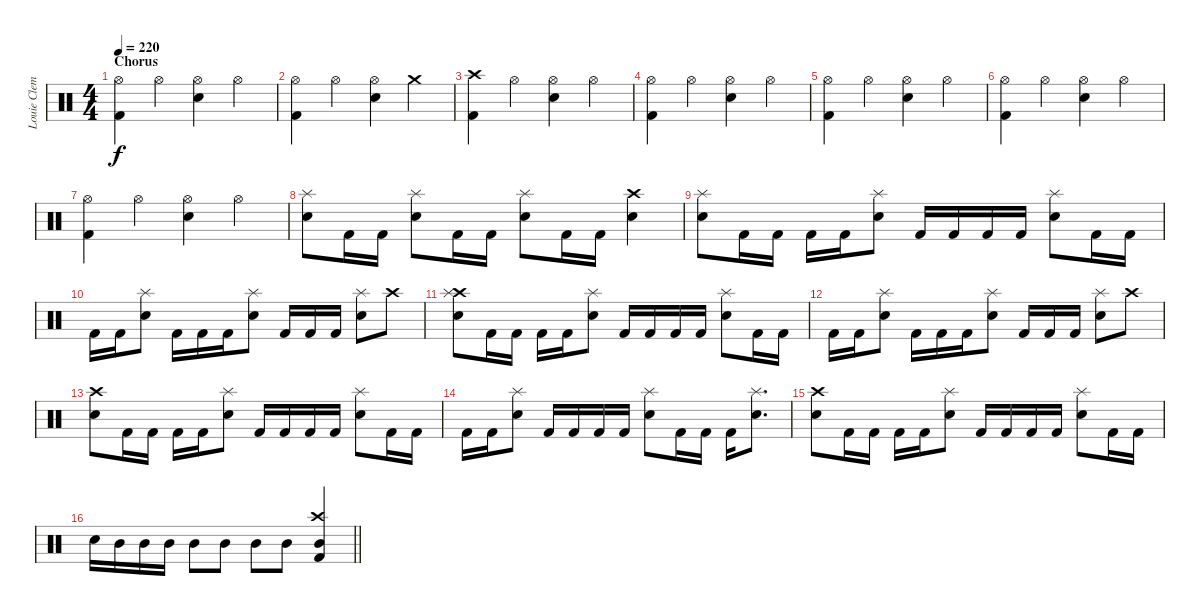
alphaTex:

\track ("Louie Clemente (Drums)" "Louie Clem") {instrument percussion}
\staff {score}
\articulation defaults
\ts (4 4)
\section ("" "Chorus")
\tempo 220
\clef neutral
\ks c
("Hi-Hat (open)" "Kick (hit) 2").4{dy f} "Hi-Hat (open)".4 ("Hi-Hat (open)" "Electric Snare (hit)").4 "Hi-Hat (open)".4 |
("Hi-Hat (open)" "Kick (hit) 2").4 "Hi-Hat (open)".4 ("Hi-Hat (open)" "Electric Snare (hit)").4 "Crash medium (hit)".4 |
("Crash high (hit)" "Kick (hit) 2").4 "Hi-Hat (open)".4 ("Hi-Hat (open)" "Electric Snare (hit)").4 "Hi-Hat (open)".4 |
("Hi-Hat (open)" "Kick (hit) 2").4 "Hi-Hat (open)".4 ("Hi-Hat (open)" "Electric Snare (hit)").4 "Hi-Hat (open)".4 |
("Hi-Hat (open)" "Kick (hit) 2").4 "Hi-Hat (open)".4 ("Hi-Hat (open)" "Electric Snare (hit)").4 "Hi-Hat (open)".4 |
("Hi-Hat (open)" "Kick (hit) 2").4 "Hi-Hat (open)".4 ("Hi-Hat (open)" "Electric Snare (hit)").4 "Hi-Hat (open)".4 |
("Hi-Hat (open)" "Kick (hit) 2").4 "Hi-Hat (open)".4 ("Hi-Hat (open)" "Electric Snare (hit)").4 "Hi-Hat (open)".4 |
("Splash (hit)" "Electric Snare (hit)").8 "Kick (hit) 2".16 "Kick (hit) 2".16 ("Splash (hit)" "Electric Snare (hit)").8 "Kick (hit) 2".16 "Kick (hit) 2".16 ("Splash (hit)" "Electric Snare (hit)").8 "Kick (hit) 2".16 "Kick (hit) 2".16 ("Crash high (hit)" "Electric Snare (hit)").4 |
("Splash (hit)" "Electric Snare (hit)").8 "Kick (hit) 2".16 "Kick (hit) 2".16 "Kick (hit) 2".16 "Kick (hit) 2".16 ("Splash (hit)" "Electric Snare (hit)").8 "Kick (hit) 2".16 "Kick (hit) 2".16 "Kick (hit) 2".16 "Kick (hit) 2".16 ("Splash (hit)" "Electric Snare (hit)").8 "Kick (hit) 2".16 "Kick (hit) 2".16 |
"Kick (hit) 2".16 "Kick (hit) 2".16 ("Splash (hit)" "Electric Snare (hit)").8 "Kick (hit) 2".16 "Kick (hit) 2".16 "Kick (hit) 2".16 ("Splash (hit)" "Electric Snare (hit)").8 "Kick (hit) 2".16 "Kick (hit) 2".16 "Kick (hit) 2".16 ("Splash (hit)" "Electric Snare (hit)").8 "Crash high (hit)".8 |
("Crash high (hit)" "Splash (hit)" "Electric Snare (hit)").8 "Kick (hit) 2".16 "Kick (hit) 2".16 "Kick (hit) 2".16 "Kick (hit) 2".16 ("Splash (hit)" "Electric Snare (hit)").8 "Kick (hit) 2".16 "Kick (hit) 2".16 "Kick (hit) 2".16 "Kick (hit) 2".16 ("Splash (hit)" "Electric Snare (hit)").8 "Kick (hit) 2".16 "Kick (hit) 2".16 |
"Kick (hit) 2".16 "Kick (hit) 2".16 ("Splash (hit)" "Electric Snare (hit)").8 "Kick (hit) 2".16 "Kick (hit) 2".16 "Kick (hit) 2".16 ("Splash (hit)" "Electric Snare (hit)").8 "Kick (hit) 2".16 "Kick (hit) 2".16 "Kick (hit) 2".16 ("Splash (hit)" "Electric Snare (hit)").8 "Crash high (hit)".8 |
("Crash high (hit)" "Electric Snare (hit)").8 "Kick (hit) 2".16 "Kick (hit) 2".16 "Kick (hit) 2".16 "Kick (hit) 2".16 ("Splash (hit)" "Electric Snare (hit)").8 "Kick (hit) 2".16 "Kick (hit) 2".16 "Kick (hit) 2".16 "Kick (hit) 2".16 ("Splash (hit)" "Electric Snare (hit)").8 "Kick (hit) 2".16 "Kick (hit) 2".16 |
"Kick (hit) 2".16 "Kick (hit) 2".16 ("Splash (hit)" "Electric Snare (hit)").8 "Kick (hit) 2".16 "Kick (hit) 2".16 "Kick (hit) 2".16 "Kick (hit) 2".16 ("Splash (hit)" "Electric Snare (hit)").8 "Kick (hit) 2".16 "Kick (hit) 2".16 "Kick (hit) 2".16 ("Splash (hit)" "Electric Snare (hit)").8{d} |
("Crash high (hit)" "Electric Snare (hit)").8 "Kick (hit) 2".16 "Kick (hit) 2".16 "Kick (hit) 2".16 "Kick (hit) 2".16 ("Splash (hit)" "Electric Snare (hit)").8 "Kick (hit) 2".16 "Kick (hit) 2".16 "Kick (hit) 2".16 "Kick (hit) 2".16 ("Splash (hit)" "Electric Snare (hit)").8 "Kick (hit) 2".16 "Kick (hit) 2".16 |
\barLineRight lightlight "Electric Snare (hit)".16 "Mid Tom (hit)".16 "Mid Tom (hit)".16 "Mid Tom (hit)".16 "Mid Tom (hit)".8 "Mid Tom (hit)".8 "Mid Tom (hit)".8 "Mid Tom (hit)".8
("Crash high (hit)" "Mid Tom (hit)" "Kick (hit) 2").4
